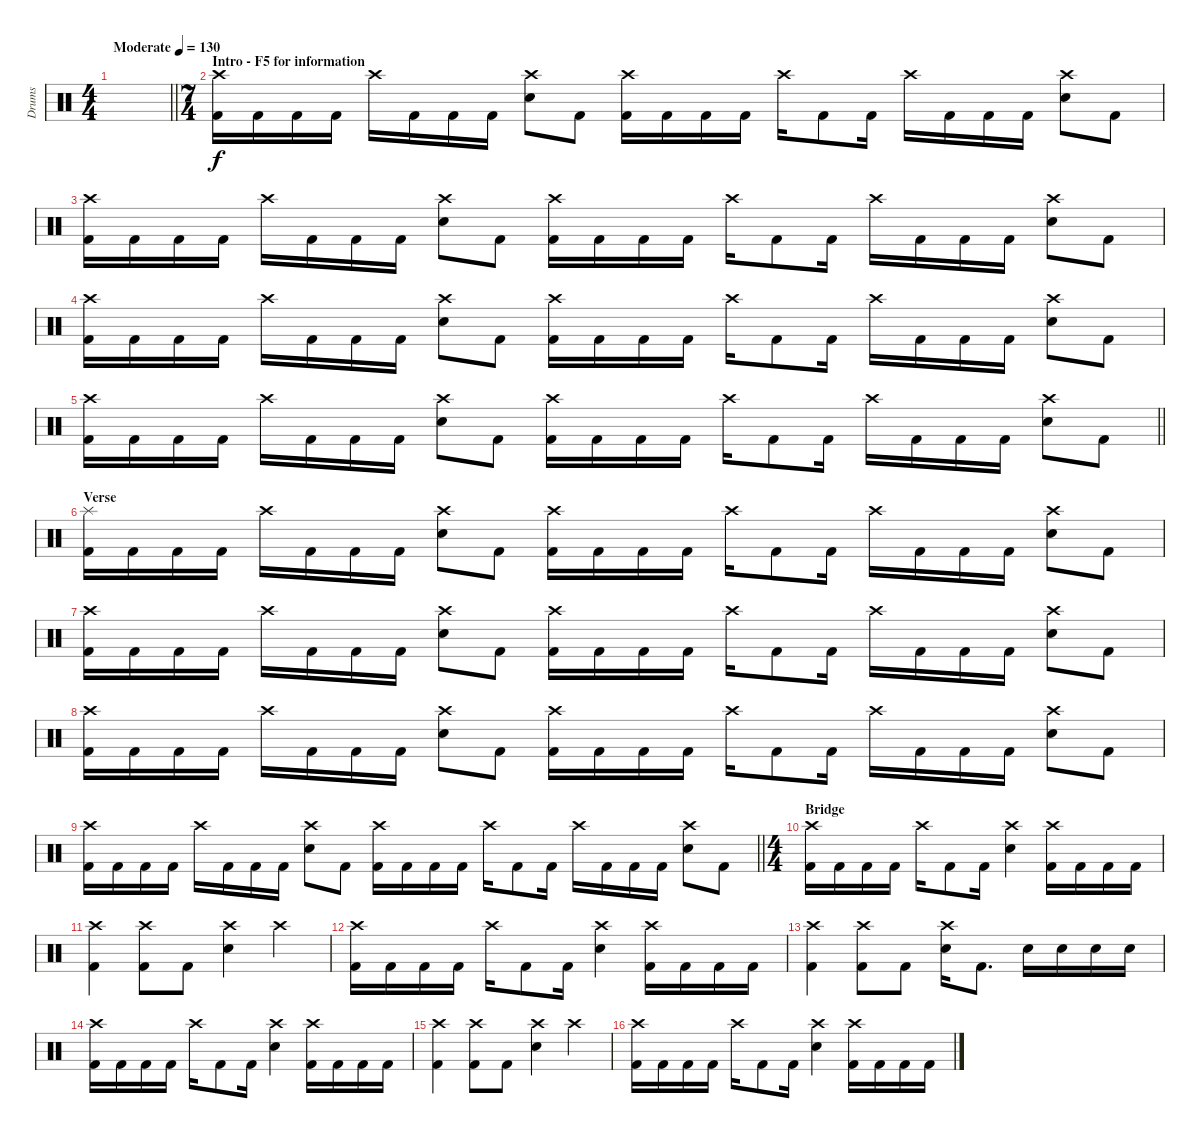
\track ("Drums" "Drums") {instrument percussion}
\staff {score}
\articulation defaults
\ts (4 4)
\tempo (130 "Moderate")
\clef neutral
\barLineRight lightlight
\ks c
|
\ts (7 4)
\section ("" "Intro - F5 for information")
("Crash high (hit)" "Kick (hit) 2").16 "Kick (hit) 2".16 "Kick (hit) 2".16 "Kick (hit) 2".16 "Crash high (hit)".16 "Kick (hit) 2".16 "Kick (hit) 2".16 "Kick (hit) 2".16 ("Crash high (hit)" "Electric Snare (hit)").8 "Kick (hit) 2".8 ("Crash high (hit)" "Kick (hit) 2").16 "Kick (hit) 2".16 "Kick (hit) 2".16 "Kick (hit) 2".16 "Crash high (hit)".16 "Kick (hit) 2".8 "Kick (hit) 2".16 "Crash high (hit)".16 "Kick (hit) 2".16 "Kick (hit) 2".16 "Kick (hit) 2".16 ("Crash high (hit)" "Electric Snare (hit)").8 "Kick (hit) 2".8 |
("Crash high (hit)" "Kick (hit) 2").16 "Kick (hit) 2".16 "Kick (hit) 2".16 "Kick (hit) 2".16 "Crash high (hit)".16 "Kick (hit) 2".16 "Kick (hit) 2".16 "Kick (hit) 2".16 ("Crash high (hit)" "Electric Snare (hit)").8 "Kick (hit) 2".8 ("Crash high (hit)" "Kick (hit) 2").16 "Kick (hit) 2".16 "Kick (hit) 2".16 "Kick (hit) 2".16 "Crash high (hit)".16 "Kick (hit) 2".8 "Kick (hit) 2".16 "Crash high (hit)".16 "Kick (hit) 2".16 "Kick (hit) 2".16 "Kick (hit) 2".16 ("Crash high (hit)" "Electric Snare (hit)").8 "Kick (hit) 2".8 |
("Crash high (hit)" "Kick (hit) 2").16 "Kick (hit) 2".16 "Kick (hit) 2".16 "Kick (hit) 2".16 "Crash high (hit)".16 "Kick (hit) 2".16 "Kick (hit) 2".16 "Kick (hit) 2".16 ("Crash high (hit)" "Electric Snare (hit)").8 "Kick (hit) 2".8 ("Crash high (hit)" "Kick (hit) 2").16 "Kick (hit) 2".16 "Kick (hit) 2".16 "Kick (hit) 2".16 "Crash high (hit)".16 "Kick (hit) 2".8 "Kick (hit) 2".16 "Crash high (hit)".16 "Kick (hit) 2".16 "Kick (hit) 2".16 "Kick (hit) 2".16 ("Crash high (hit)" "Electric Snare (hit)").8 "Kick (hit) 2".8 |
\barLineRight lightlight
("Crash high (hit)" "Kick (hit) 2").16 "Kick (hit) 2".16 "Kick (hit) 2".16 "Kick (hit) 2".16 "Crash high (hit)".16 "Kick (hit) 2".16 "Kick (hit) 2".16 "Kick (hit) 2".16 ("Crash high (hit)" "Electric Snare (hit)").8 "Kick (hit) 2".8 ("Crash high (hit)" "Kick (hit) 2").16 "Kick (hit) 2".16 "Kick (hit) 2".16 "Kick (hit) 2".16 "Crash high (hit)".16 "Kick (hit) 2".8 "Kick (hit) 2".16 "Crash high (hit)".16 "Kick (hit) 2".16 "Kick (hit) 2".16 "Kick (hit) 2".16 ("Crash high (hit)" "Electric Snare (hit)").8 "Kick (hit) 2".8 |
\section ("" "Verse")
("Splash (hit)" "Kick (hit) 2").16 "Kick (hit) 2".16 "Kick (hit) 2".16 "Kick (hit) 2".16 "Crash high (hit)".16 "Kick (hit) 2".16 "Kick (hit) 2".16 "Kick (hit) 2".16 ("Crash high (hit)" "Electric Snare (hit)").8 "Kick (hit) 2".8 ("Crash high (hit)" "Kick (hit) 2").16 "Kick (hit) 2".16 "Kick (hit) 2".16 "Kick (hit) 2".16 "Crash high (hit)".16 "Kick (hit) 2".8 "Kick (hit) 2".16 "Crash high (hit)".16 "Kick (hit) 2".16 "Kick (hit) 2".16 "Kick (hit) 2".16 ("Crash high (hit)" "Electric Snare (hit)").8 "Kick (hit) 2".8 |
("Crash high (hit)" "Kick (hit) 2").16 "Kick (hit) 2".16 "Kick (hit) 2".16 "Kick (hit) 2".16 "Crash high (hit)".16 "Kick (hit) 2".16 "Kick (hit) 2".16 "Kick (hit) 2".16 ("Crash high (hit)" "Electric Snare (hit)").8 "Kick (hit) 2".8 ("Crash high (hit)" "Kick (hit) 2").16 "Kick (hit) 2".16 "Kick (hit) 2".16 "Kick (hit) 2".16 "Crash high (hit)".16 "Kick (hit) 2".8 "Kick (hit) 2".16 "Crash high (hit)".16 "Kick (hit) 2".16 "Kick (hit) 2".16 "Kick (hit) 2".16 ("Crash high (hit)" "Electric Snare (hit)").8 "Kick (hit) 2".8 |
("Crash high (hit)" "Kick (hit) 2").16 "Kick (hit) 2".16 "Kick (hit) 2".16 "Kick (hit) 2".16 "Crash high (hit)".16 "Kick (hit) 2".16 "Kick (hit) 2".16 "Kick (hit) 2".16 ("Crash high (hit)" "Electric Snare (hit)").8 "Kick (hit) 2".8 ("Crash high (hit)" "Kick (hit) 2").16 "Kick (hit) 2".16 "Kick (hit) 2".16 "Kick (hit) 2".16 "Crash high (hit)".16 "Kick (hit) 2".8 "Kick (hit) 2".16 "Crash high (hit)".16 "Kick (hit) 2".16 "Kick (hit) 2".16 "Kick (hit) 2".16 ("Crash high (hit)" "Electric Snare (hit)").8 "Kick (hit) 2".8 |
\barLineRight lightlight
("Crash high (hit)" "Kick (hit) 2").16 "Kick (hit) 2".16 "Kick (hit) 2".16 "Kick (hit) 2".16 "Crash high (hit)".16 "Kick (hit) 2".16 "Kick (hit) 2".16 "Kick (hit) 2".16 ("Crash high (hit)" "Electric Snare (hit)").8 "Kick (hit) 2".8 ("Crash high (hit)" "Kick (hit) 2").16 "Kick (hit) 2".16 "Kick (hit) 2".16 "Kick (hit) 2".16 "Crash high (hit)".16 "Kick (hit) 2".8 "Kick (hit) 2".16 "Crash high (hit)".16 "Kick (hit) 2".16 "Kick (hit) 2".16 "Kick (hit) 2".16 ("Crash high (hit)" "Electric Snare (hit)").8 "Kick (hit) 2".8 |
\ts (4 4)
\section ("" "Bridge")
("Crash high (hit)" "Kick (hit) 2").16 "Kick (hit) 2".16 "Kick (hit) 2".16 "Kick (hit) 2".16 "Crash high (hit)".16 "Kick (hit) 2".8 "Kick (hit) 2".16 ("Crash high (hit)" "Electric Snare (hit)").4 ("Crash high (hit)" "Kick (hit) 2").16 "Kick (hit) 2".16 "Kick (hit) 2".16 "Kick (hit) 2".16 |
("Crash high (hit)" "Kick (hit) 2").4 ("Crash high (hit)" "Kick (hit) 2").8 "Kick (hit) 2".8 ("Crash high (hit)" "Electric Snare (hit)").4 "Crash high (hit)".4 |
("Crash high (hit)" "Kick (hit) 2").16 "Kick (hit) 2".16 "Kick (hit) 2".16 "Kick (hit) 2".16 "Crash high (hit)".16 "Kick (hit) 2".8 "Kick (hit) 2".16 ("Crash high (hit)" "Electric Snare (hit)").4 ("Crash high (hit)" "Kick (hit) 2").16 "Kick (hit) 2".16 "Kick (hit) 2".16 "Kick (hit) 2".16 |
("Crash high (hit)" "Kick (hit) 2").4 ("Crash high (hit)" "Kick (hit) 2").8 "Kick (hit) 2".8 ("Crash high (hit)" "Electric Snare (hit)").16 "Kick (hit) 2".8{d} "Electric Snare (hit)".16 "Electric Snare (hit)".16 "Electric Snare (hit)".16 "Electric Snare (hit)".16 |
("Crash high (hit)" "Kick (hit) 2").16 "Kick (hit) 2".16 "Kick (hit) 2".16 "Kick (hit) 2".16 "Crash high (hit)".16 "Kick (hit) 2".8 "Kick (hit) 2".16 ("Crash high (hit)" "Electric Snare (hit)").4 ("Crash high (hit)" "Kick (hit) 2").16 "Kick (hit) 2".16 "Kick (hit) 2".16 "Kick (hit) 2".16 |
("Crash high (hit)" "Kick (hit) 2").4 ("Crash high (hit)" "Kick (hit) 2").8 "Kick (hit) 2".8 ("Crash high (hit)" "Electric Snare (hit)").4 "Crash high (hit)".4 |
("Crash high (hit)" "Kick (hit) 2").16 "Kick (hit) 2".16 "Kick (hit) 2".16 "Kick (hit) 2".16 "Crash high (hit)".16 "Kick (hit) 2".8 "Kick (hit) 2".16 ("Crash high (hit)" "Electric Snare (hit)").4 ("Crash high (hit)" "Kick (hit) 2").16 "Kick (hit) 2".16 "Kick (hit) 2".16 "Kick (hit) 2".16
